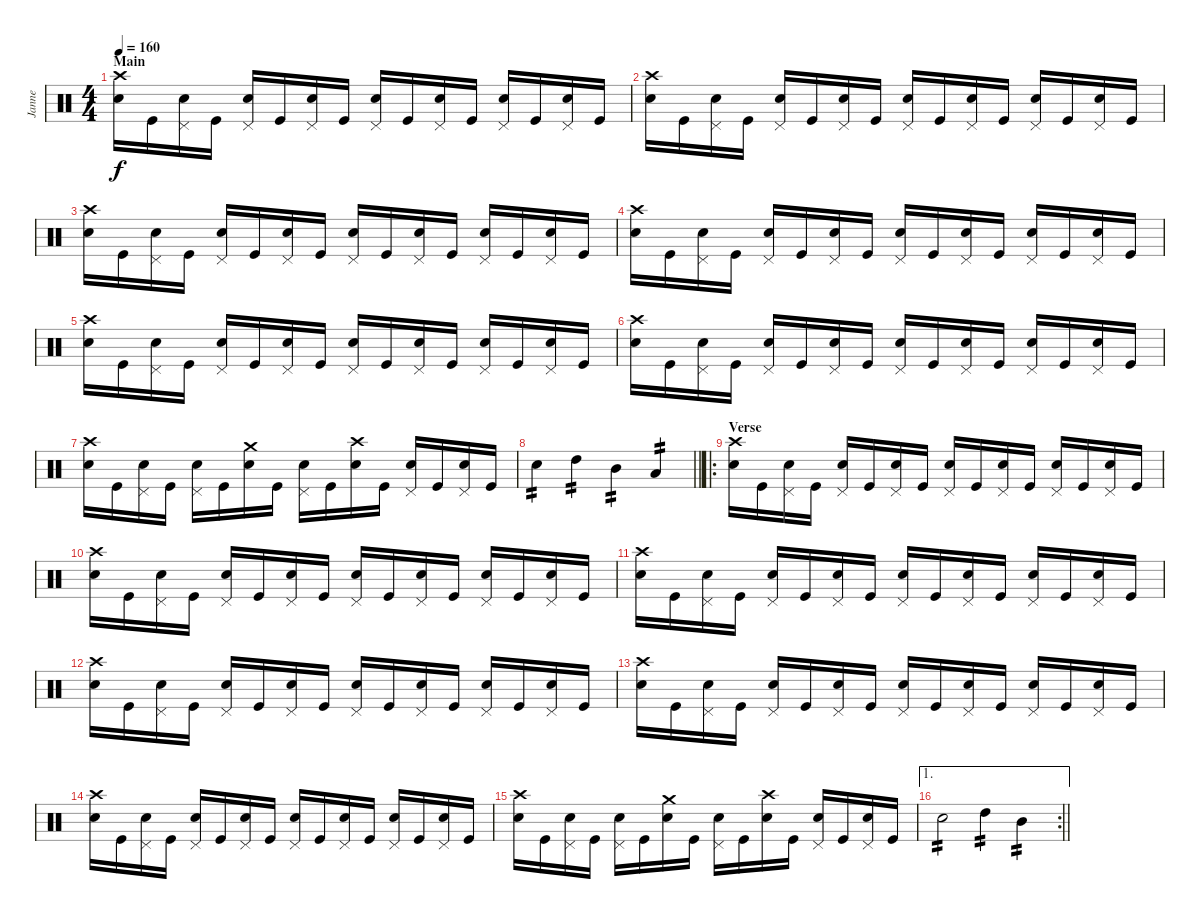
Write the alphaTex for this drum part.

\track ("Janne" "Janne") {instrument percussion}
\staff {score}
\articulation defaults
\ts (4 4)
\section ("" "Main")
\tempo 160
\clef neutral
\ks c
("Crash high (hit)" "Snare (hit) 2").16{dy f} "Kick (hit)".16 ("Pedal Hi-Hat (hit)" "Snare (hit) 2").16 "Kick (hit)".16 ("Pedal Hi-Hat (hit)" "Snare (hit) 2").16 "Kick (hit)".16 ("Pedal Hi-Hat (hit)" "Snare (hit) 2").16 "Kick (hit)".16 ("Pedal Hi-Hat (hit)" "Snare (hit) 2").16 "Kick (hit)".16 ("Pedal Hi-Hat (hit)" "Snare (hit) 2").16 "Kick (hit)".16 ("Pedal Hi-Hat (hit)" "Snare (hit) 2").16 "Kick (hit)".16 ("Pedal Hi-Hat (hit)" "Snare (hit) 2").16 "Kick (hit)".16 |
("Crash high (hit)" "Snare (hit) 2").16 "Kick (hit)".16 ("Pedal Hi-Hat (hit)" "Snare (hit) 2").16 "Kick (hit)".16 ("Pedal Hi-Hat (hit)" "Snare (hit) 2").16 "Kick (hit)".16 ("Pedal Hi-Hat (hit)" "Snare (hit) 2").16 "Kick (hit)".16 ("Pedal Hi-Hat (hit)" "Snare (hit) 2").16 "Kick (hit)".16 ("Pedal Hi-Hat (hit)" "Snare (hit) 2").16 "Kick (hit)".16 ("Pedal Hi-Hat (hit)" "Snare (hit) 2").16 "Kick (hit)".16 ("Pedal Hi-Hat (hit)" "Snare (hit) 2").16 "Kick (hit)".16 |
("Crash high (hit)" "Snare (hit) 2").16 "Kick (hit)".16 ("Pedal Hi-Hat (hit)" "Snare (hit) 2").16 "Kick (hit)".16 ("Pedal Hi-Hat (hit)" "Snare (hit) 2").16 "Kick (hit)".16 ("Pedal Hi-Hat (hit)" "Snare (hit) 2").16 "Kick (hit)".16 ("Pedal Hi-Hat (hit)" "Snare (hit) 2").16 "Kick (hit)".16 ("Pedal Hi-Hat (hit)" "Snare (hit) 2").16 "Kick (hit)".16 ("Pedal Hi-Hat (hit)" "Snare (hit) 2").16 "Kick (hit)".16 ("Pedal Hi-Hat (hit)" "Snare (hit) 2").16 "Kick (hit)".16 |
("Crash high (hit)" "Snare (hit) 2").16 "Kick (hit)".16 ("Pedal Hi-Hat (hit)" "Snare (hit) 2").16 "Kick (hit)".16 ("Pedal Hi-Hat (hit)" "Snare (hit) 2").16 "Kick (hit)".16 ("Pedal Hi-Hat (hit)" "Snare (hit) 2").16 "Kick (hit)".16 ("Pedal Hi-Hat (hit)" "Snare (hit) 2").16 "Kick (hit)".16 ("Pedal Hi-Hat (hit)" "Snare (hit) 2").16 "Kick (hit)".16 ("Pedal Hi-Hat (hit)" "Snare (hit) 2").16 "Kick (hit)".16 ("Pedal Hi-Hat (hit)" "Snare (hit) 2").16 "Kick (hit)".16 |
("Crash high (hit)" "Snare (hit) 2").16 "Kick (hit)".16 ("Pedal Hi-Hat (hit)" "Snare (hit) 2").16 "Kick (hit)".16 ("Pedal Hi-Hat (hit)" "Snare (hit) 2").16 "Kick (hit)".16 ("Pedal Hi-Hat (hit)" "Snare (hit) 2").16 "Kick (hit)".16 ("Pedal Hi-Hat (hit)" "Snare (hit) 2").16 "Kick (hit)".16 ("Pedal Hi-Hat (hit)" "Snare (hit) 2").16 "Kick (hit)".16 ("Pedal Hi-Hat (hit)" "Snare (hit) 2").16 "Kick (hit)".16 ("Pedal Hi-Hat (hit)" "Snare (hit) 2").16 "Kick (hit)".16 |
("Crash high (hit)" "Snare (hit) 2").16 "Kick (hit)".16 ("Pedal Hi-Hat (hit)" "Snare (hit) 2").16 "Kick (hit)".16 ("Pedal Hi-Hat (hit)" "Snare (hit) 2").16 "Kick (hit)".16 ("Pedal Hi-Hat (hit)" "Snare (hit) 2").16 "Kick (hit)".16 ("Pedal Hi-Hat (hit)" "Snare (hit) 2").16 "Kick (hit)".16 ("Pedal Hi-Hat (hit)" "Snare (hit) 2").16 "Kick (hit)".16 ("Pedal Hi-Hat (hit)" "Snare (hit) 2").16 "Kick (hit)".16 ("Pedal Hi-Hat (hit)" "Snare (hit) 2").16 "Kick (hit)".16 |
("Crash high (hit)" "Snare (hit) 2").16 "Kick (hit)".16 ("Pedal Hi-Hat (hit)" "Snare (hit) 2").16 "Kick (hit)".16 ("Pedal Hi-Hat (hit)" "Snare (hit) 2").16 "Kick (hit)".16 ("Crash medium (hit)" "Snare (hit) 2").16 "Kick (hit)".16 ("Pedal Hi-Hat (hit)" "Snare (hit) 2").16 "Kick (hit)".16 ("Crash high (hit)" "Snare (hit) 2").16 "Kick (hit)".16 ("Pedal Hi-Hat (hit)" "Snare (hit) 2").16 "Kick (hit)".16 ("Pedal Hi-Hat (hit)" "Snare (hit) 2").16 "Kick (hit)".16 |
\barLineRight lightlight "Snare (hit) 2".4{tp 2} "High Tom (hit)".4{tp 2} "Mid Tom (hit)".4{tp 2} "Low Tom (hit)".4{tp 2}
|
\ro
\section ("" "Verse")
("Crash high (hit)" "Snare (hit) 2").16 "Kick (hit)".16 ("Pedal Hi-Hat (hit)" "Snare (hit) 2").16 "Kick (hit)".16 ("Pedal Hi-Hat (hit)" "Snare (hit) 2").16 "Kick (hit)".16 ("Pedal Hi-Hat (hit)" "Snare (hit) 2").16 "Kick (hit)".16 ("Pedal Hi-Hat (hit)" "Snare (hit) 2").16 "Kick (hit)".16 ("Pedal Hi-Hat (hit)" "Snare (hit) 2").16 "Kick (hit)".16 ("Pedal Hi-Hat (hit)" "Snare (hit) 2").16 "Kick (hit)".16 ("Pedal Hi-Hat (hit)" "Snare (hit) 2").16 "Kick (hit)".16 |
("Crash high (hit)" "Snare (hit) 2").16 "Kick (hit)".16 ("Pedal Hi-Hat (hit)" "Snare (hit) 2").16 "Kick (hit)".16 ("Pedal Hi-Hat (hit)" "Snare (hit) 2").16 "Kick (hit)".16 ("Pedal Hi-Hat (hit)" "Snare (hit) 2").16 "Kick (hit)".16 ("Pedal Hi-Hat (hit)" "Snare (hit) 2").16 "Kick (hit)".16 ("Pedal Hi-Hat (hit)" "Snare (hit) 2").16 "Kick (hit)".16 ("Pedal Hi-Hat (hit)" "Snare (hit) 2").16 "Kick (hit)".16 ("Pedal Hi-Hat (hit)" "Snare (hit) 2").16 "Kick (hit)".16 |
("Crash high (hit)" "Snare (hit) 2").16 "Kick (hit)".16 ("Pedal Hi-Hat (hit)" "Snare (hit) 2").16 "Kick (hit)".16 ("Pedal Hi-Hat (hit)" "Snare (hit) 2").16 "Kick (hit)".16 ("Pedal Hi-Hat (hit)" "Snare (hit) 2").16 "Kick (hit)".16 ("Pedal Hi-Hat (hit)" "Snare (hit) 2").16 "Kick (hit)".16 ("Pedal Hi-Hat (hit)" "Snare (hit) 2").16 "Kick (hit)".16 ("Pedal Hi-Hat (hit)" "Snare (hit) 2").16 "Kick (hit)".16 ("Pedal Hi-Hat (hit)" "Snare (hit) 2").16 "Kick (hit)".16 |
("Crash high (hit)" "Snare (hit) 2").16 "Kick (hit)".16 ("Pedal Hi-Hat (hit)" "Snare (hit) 2").16 "Kick (hit)".16 ("Pedal Hi-Hat (hit)" "Snare (hit) 2").16 "Kick (hit)".16 ("Pedal Hi-Hat (hit)" "Snare (hit) 2").16 "Kick (hit)".16 ("Pedal Hi-Hat (hit)" "Snare (hit) 2").16 "Kick (hit)".16 ("Pedal Hi-Hat (hit)" "Snare (hit) 2").16 "Kick (hit)".16 ("Pedal Hi-Hat (hit)" "Snare (hit) 2").16 "Kick (hit)".16 ("Pedal Hi-Hat (hit)" "Snare (hit) 2").16 "Kick (hit)".16 |
("Crash high (hit)" "Snare (hit) 2").16 "Kick (hit)".16 ("Pedal Hi-Hat (hit)" "Snare (hit) 2").16 "Kick (hit)".16 ("Pedal Hi-Hat (hit)" "Snare (hit) 2").16 "Kick (hit)".16 ("Pedal Hi-Hat (hit)" "Snare (hit) 2").16 "Kick (hit)".16 ("Pedal Hi-Hat (hit)" "Snare (hit) 2").16 "Kick (hit)".16 ("Pedal Hi-Hat (hit)" "Snare (hit) 2").16 "Kick (hit)".16 ("Pedal Hi-Hat (hit)" "Snare (hit) 2").16 "Kick (hit)".16 ("Pedal Hi-Hat (hit)" "Snare (hit) 2").16 "Kick (hit)".16 |
("Crash high (hit)" "Snare (hit) 2").16 "Kick (hit)".16 ("Pedal Hi-Hat (hit)" "Snare (hit) 2").16 "Kick (hit)".16 ("Pedal Hi-Hat (hit)" "Snare (hit) 2").16 "Kick (hit)".16 ("Pedal Hi-Hat (hit)" "Snare (hit) 2").16 "Kick (hit)".16 ("Pedal Hi-Hat (hit)" "Snare (hit) 2").16 "Kick (hit)".16 ("Pedal Hi-Hat (hit)" "Snare (hit) 2").16 "Kick (hit)".16 ("Pedal Hi-Hat (hit)" "Snare (hit) 2").16 "Kick (hit)".16 ("Pedal Hi-Hat (hit)" "Snare (hit) 2").16 "Kick (hit)".16 |
("Crash high (hit)" "Snare (hit) 2").16 "Kick (hit)".16 ("Pedal Hi-Hat (hit)" "Snare (hit) 2").16 "Kick (hit)".16 ("Pedal Hi-Hat (hit)" "Snare (hit) 2").16 "Kick (hit)".16 ("Crash medium (hit)" "Snare (hit) 2").16 "Kick (hit)".16 ("Pedal Hi-Hat (hit)" "Snare (hit) 2").16 "Kick (hit)".16 ("Crash high (hit)" "Snare (hit) 2").16 "Kick (hit)".16 ("Pedal Hi-Hat (hit)" "Snare (hit) 2").16 "Kick (hit)".16 ("Pedal Hi-Hat (hit)" "Snare (hit) 2").16 "Kick (hit)".16 |
\ae 1
\rc 2
\barLineRight lightlight "Snare (hit) 2".2{tp 2} "High Tom (hit)".4{tp 2} "Mid Tom (hit)".4{tp 2}
